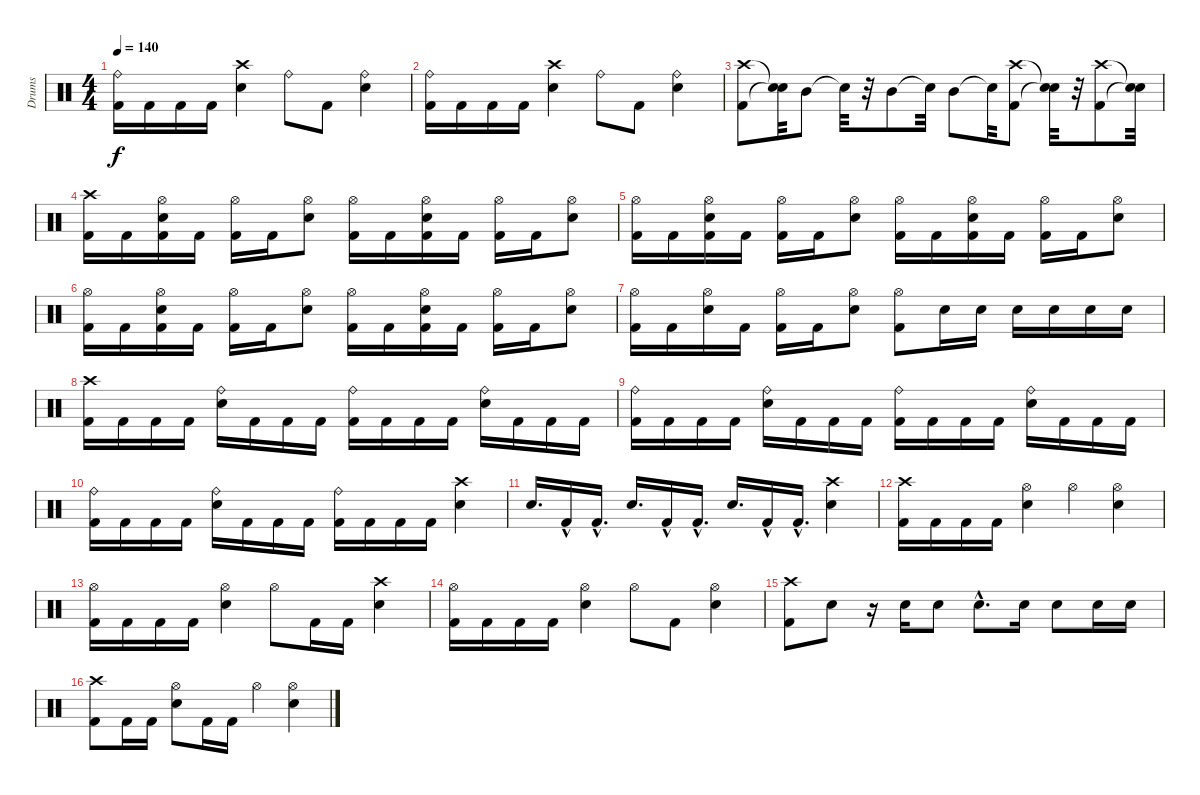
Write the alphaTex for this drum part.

\track ("Drums" "Drums") {instrument percussion}
\staff {score}
\articulation defaults
\ts (4 4)
\tempo 140
\clef neutral
\ks c
("Kick (hit) 2" "Ride (bell)").16{dy f} "Kick (hit) 2".16 "Kick (hit) 2".16 "Kick (hit) 2".16 ("Snare (hit) 2" "Crash high (hit)").4 "Ride (bell)".8 "Kick (hit) 2".8 ("Snare (hit) 2" "Ride (bell)").4 |
("Kick (hit) 2" "Ride (bell)").16 "Kick (hit) 2".16 "Kick (hit) 2".16 "Kick (hit) 2".16 ("Snare (hit) 2" "Crash high (hit)").4 "Ride (bell)".8 "Kick (hit) 2".8 ("Ride (bell)" "Snare (hit) 2").4 |
("Kick (hit) 2" "Crash high (hit)").8 ("Snare (hit)"{t} "Snare (hit)"{t}).32 "Mid Tom (hit)".8 "Snare (hit)"{t}.32 r.32 "Mid Tom (hit)".8 "Snare (hit)"{t}.32 "Mid Tom (hit)".8 "Snare (hit)"{t}.32 ("Crash high (hit)" "Kick (hit) 2").8 ("Snare (hit)"{t} "Snare (hit)"{t}).32 r.32 ("Kick (hit) 2" "Crash high (hit)").8 ("Snare (hit)"{t} "Snare (hit)"{t}).32 |
("Kick (hit) 2" "Crash high (hit)").16 "Kick (hit) 2".16 ("Kick (hit) 2" "Snare (hit) 2" "Hi-Hat (open)").16 "Kick (hit) 2".16 ("Kick (hit) 2" "Hi-Hat (open)").16 "Kick (hit) 2".16 ("Hi-Hat (open)" "Snare (hit) 2").8 ("Hi-Hat (open)" "Kick (hit) 2").16 "Kick (hit) 2".16 ("Hi-Hat (open)" "Snare (hit) 2" "Kick (hit) 2").16 "Kick (hit) 2".16 ("Kick (hit) 2" "Hi-Hat (open)").16 "Kick (hit) 2".16 ("Snare (hit) 2" "Hi-Hat (open)").8 |
("Kick (hit) 2" "Hi-Hat (open)").16 "Kick (hit) 2".16 ("Kick (hit) 2" "Hi-Hat (open)" "Snare (hit) 2").16 "Kick (hit) 2".16 ("Kick (hit) 2" "Hi-Hat (open)").16 "Kick (hit) 2".16 ("Snare (hit) 2" "Hi-Hat (open)").8 ("Hi-Hat (open)" "Kick (hit) 2").16 "Kick (hit) 2".16 ("Kick (hit) 2" "Snare (hit) 2" "Hi-Hat (open)").16 "Kick (hit) 2".16 ("Hi-Hat (open)" "Kick (hit) 2").16 "Kick (hit) 2".16 ("Snare (hit) 2" "Hi-Hat (open)").8 |
("Kick (hit) 2" "Hi-Hat (open)").16 "Kick (hit) 2".16 ("Snare (hit) 2" "Hi-Hat (open)" "Kick (hit) 2").16 "Kick (hit) 2".16 ("Kick (hit) 2" "Hi-Hat (open)").16 "Kick (hit) 2".16 ("Hi-Hat (open)" "Snare (hit) 2").8 ("Hi-Hat (open)" "Kick (hit) 2").16 "Kick (hit) 2".16 ("Hi-Hat (open)" "Snare (hit) 2" "Kick (hit) 2").16 "Kick (hit) 2".16 ("Kick (hit) 2" "Hi-Hat (open)").16 "Kick (hit) 2".16 ("Snare (hit) 2" "Hi-Hat (open)").8 |
("Kick (hit) 2" "Hi-Hat (open)").16 "Kick (hit) 2".16 ("Snare (hit) 2" "Hi-Hat (open)").16 "Kick (hit) 2".16 ("Kick (hit) 2" "Hi-Hat (open)").16 "Kick (hit) 2".16 ("Hi-Hat (open)" "Snare (hit) 2").8 ("Kick (hit) 2" "Hi-Hat (open)").8 "Snare (hit) 2".16 "Snare (hit) 2".16 "Snare (hit) 2".16 "Snare (hit) 2".16 "Snare (hit) 2".16 "Snare (hit) 2".16 |
("Kick (hit) 2" "Crash high (hit)").16 "Kick (hit) 2".16 "Kick (hit) 2".16 "Kick (hit) 2".16 ("Snare (hit) 2" "Ride (bell)").16 "Kick (hit) 2".16 "Kick (hit) 2".16 "Kick (hit) 2".16 ("Kick (hit) 2" "Ride (bell)").16 "Kick (hit) 2".16 "Kick (hit) 2".16 "Kick (hit) 2".16 ("Snare (hit) 2" "Ride (bell)").16 "Kick (hit) 2".16 "Kick (hit) 2".16 "Kick (hit) 2".16 |
("Kick (hit) 2" "Ride (bell)").16 "Kick (hit) 2".16 "Kick (hit) 2".16 "Kick (hit) 2".16 ("Ride (bell)" "Snare (hit) 2").16 "Kick (hit) 2".16 "Kick (hit) 2".16 "Kick (hit) 2".16 ("Kick (hit) 2" "Ride (bell)").16 "Kick (hit) 2".16 "Kick (hit) 2".16 "Kick (hit) 2".16 ("Ride (bell)" "Snare (hit) 2").16 "Kick (hit) 2".16 "Kick (hit) 2".16 "Kick (hit) 2".16 |
("Kick (hit) 2" "Ride (bell)").16 "Kick (hit) 2".16 "Kick (hit) 2".16 "Kick (hit) 2".16 ("Snare (hit) 2" "Ride (bell)").16 "Kick (hit) 2".16 "Kick (hit) 2".16 "Kick (hit) 2".16 ("Kick (hit) 2" "Ride (bell)").16 "Kick (hit) 2".16 "Kick (hit) 2".16 "Kick (hit) 2".16 ("Snare (hit) 2" "Crash high (hit)").4 |
"Snare (hit) 2".16{d} "Kick (hit) 2"{hac}.16 "Kick (hit) 2"{hac}.16{d} "Snare (hit) 2".16{d} "Kick (hit) 2"{hac}.16 "Kick (hit) 2"{hac}.16{d} "Snare (hit) 2".16{d} "Kick (hit) 2"{hac}.16 "Kick (hit) 2"{hac}.16{d} ("Snare (hit) 2" "Crash high (hit)").4 |
("Kick (hit) 2" "Crash high (hit)").16 "Kick (hit) 2".16 "Kick (hit) 2".16 "Kick (hit) 2".16 ("Hi-Hat (open)" "Snare (hit) 2").4 "Hi-Hat (open)".4 ("Snare (hit) 2" "Hi-Hat (open)").4 |
("Hi-Hat (open)" "Kick (hit) 2").16 "Kick (hit) 2".16 "Kick (hit) 2".16 "Kick (hit) 2".16 ("Hi-Hat (open)" "Snare (hit) 2").4 "Hi-Hat (open)".8 "Kick (hit) 2".16 "Kick (hit) 2".16 ("Crash high (hit)" "Snare (hit) 2").4 |
("Kick (hit) 2" "Hi-Hat (open)").16 "Kick (hit) 2".16 "Kick (hit) 2".16 "Kick (hit) 2".16 ("Hi-Hat (open)" "Snare (hit) 2").4 "Hi-Hat (open)".8 "Kick (hit) 2".8 ("Hi-Hat (open)" "Snare (hit) 2").4 |
("Kick (hit) 2" "Crash high (hit)").8 "Snare (hit) 2".8 r.16 "Snare (hit) 2".16 "Snare (hit) 2".8 "Snare (hit) 2"{hac}.8{d} "Snare (hit) 2".16 "Snare (hit) 2".8 "Snare (hit) 2".16 "Snare (hit) 2".16 |
("Crash high (hit)" "Kick (hit) 2").8 "Kick (hit) 2".16 "Kick (hit) 2".16 ("Snare (hit) 2" "Hi-Hat (open)").8 "Kick (hit) 2".16 "Kick (hit) 2".16 "Hi-Hat (open)".4 ("Snare (hit) 2" "Hi-Hat (open)").4
